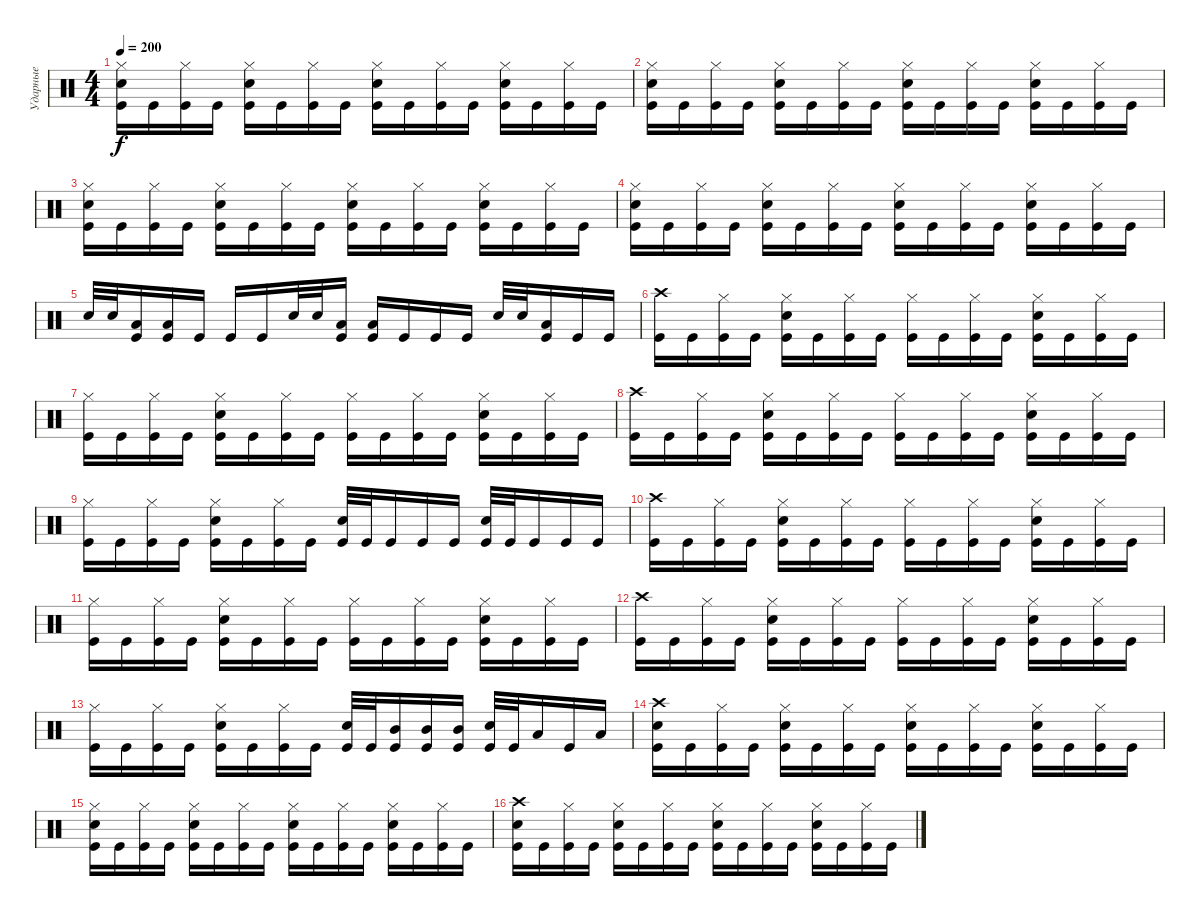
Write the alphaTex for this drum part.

\track ("Ударные" "Ударные") {instrument percussion}
\staff {score}
\articulation defaults
\ts (4 4)
\tempo 200
\clef neutral
\ks c
("Hi-Hat (closed)" "Electric Snare (hit)" "Kick (hit)").16{dy f} "Kick (hit)".16 ("Hi-Hat (closed)" "Kick (hit)").16 "Kick (hit)".16 ("Hi-Hat (closed)" "Electric Snare (hit)" "Kick (hit)").16 "Kick (hit)".16 ("Hi-Hat (closed)" "Kick (hit)").16 "Kick (hit)".16 ("Hi-Hat (closed)" "Electric Snare (hit)" "Kick (hit)").16 "Kick (hit)".16 ("Hi-Hat (closed)" "Kick (hit)").16 "Kick (hit)".16 ("Hi-Hat (closed)" "Electric Snare (hit)" "Kick (hit)").16 "Kick (hit)".16 ("Hi-Hat (closed)" "Kick (hit)").16 "Kick (hit)".16 |
("Hi-Hat (closed)" "Electric Snare (hit)" "Kick (hit)").16 "Kick (hit)".16 ("Hi-Hat (closed)" "Kick (hit)").16 "Kick (hit)".16 ("Hi-Hat (closed)" "Electric Snare (hit)" "Kick (hit)").16 "Kick (hit)".16 ("Hi-Hat (closed)" "Kick (hit)").16 "Kick (hit)".16 ("Hi-Hat (closed)" "Electric Snare (hit)" "Kick (hit)").16 "Kick (hit)".16 ("Hi-Hat (closed)" "Kick (hit)").16 "Kick (hit)".16 ("Hi-Hat (closed)" "Electric Snare (hit)" "Kick (hit)").16 "Kick (hit)".16 ("Hi-Hat (closed)" "Kick (hit)").16 "Kick (hit)".16 |
("Hi-Hat (closed)" "Electric Snare (hit)" "Kick (hit)").16 "Kick (hit)".16 ("Hi-Hat (closed)" "Kick (hit)").16 "Kick (hit)".16 ("Hi-Hat (closed)" "Electric Snare (hit)" "Kick (hit)").16 "Kick (hit)".16 ("Hi-Hat (closed)" "Kick (hit)").16 "Kick (hit)".16 ("Hi-Hat (closed)" "Electric Snare (hit)" "Kick (hit)").16 "Kick (hit)".16 ("Hi-Hat (closed)" "Kick (hit)").16 "Kick (hit)".16 ("Hi-Hat (closed)" "Electric Snare (hit)" "Kick (hit)").16 "Kick (hit)".16 ("Hi-Hat (closed)" "Kick (hit)").16 "Kick (hit)".16 |
("Hi-Hat (closed)" "Electric Snare (hit)" "Kick (hit)").16 "Kick (hit)".16 ("Hi-Hat (closed)" "Kick (hit)").16 "Kick (hit)".16 ("Hi-Hat (closed)" "Electric Snare (hit)" "Kick (hit)").16 "Kick (hit)".16 ("Hi-Hat (closed)" "Kick (hit)").16 "Kick (hit)".16 ("Hi-Hat (closed)" "Electric Snare (hit)" "Kick (hit)").16 "Kick (hit)".16 ("Hi-Hat (closed)" "Kick (hit)").16 "Kick (hit)".16 ("Hi-Hat (closed)" "Electric Snare (hit)" "Kick (hit)").16 "Kick (hit)".16 ("Hi-Hat (closed)" "Kick (hit)").16 "Kick (hit)".16 |
"Electric Snare (hit)".32 "Electric Snare (hit)".32 ("Low Tom (hit)" "Kick (hit)").16 ("Low Tom (hit)" "Kick (hit)").16 "Kick (hit)".16 "Kick (hit)".16 "Kick (hit)".16 "Electric Snare (hit)".32 "Electric Snare (hit)".32 ("Low Tom (hit)" "Kick (hit)").16 ("Low Tom (hit)" "Kick (hit)").16 "Kick (hit)".16 "Kick (hit)".16 "Kick (hit)".16 "Electric Snare (hit)".32 "Electric Snare (hit)".32 ("Low Tom (hit)" "Kick (hit)").16 "Kick (hit)".16 "Kick (hit)".16 |
("Crash high (hit)" "Kick (hit)").16 "Kick (hit)".16 ("Hi-Hat (closed)" "Kick (hit)").16 "Kick (hit)".16 ("Hi-Hat (closed)" "Electric Snare (hit)" "Kick (hit)").16 "Kick (hit)".16 ("Hi-Hat (closed)" "Kick (hit)").16 "Kick (hit)".16 ("Hi-Hat (closed)" "Kick (hit)").16 "Kick (hit)".16 ("Hi-Hat (closed)" "Kick (hit)").16 "Kick (hit)".16 ("Hi-Hat (closed)" "Electric Snare (hit)" "Kick (hit)").16 "Kick (hit)".16 ("Hi-Hat (closed)" "Kick (hit)").16 "Kick (hit)".16 |
("Hi-Hat (closed)" "Kick (hit)").16 "Kick (hit)".16 ("Hi-Hat (closed)" "Kick (hit)").16 "Kick (hit)".16 ("Hi-Hat (closed)" "Electric Snare (hit)" "Kick (hit)").16 "Kick (hit)".16 ("Hi-Hat (closed)" "Kick (hit)").16 "Kick (hit)".16 ("Hi-Hat (closed)" "Kick (hit)").16 "Kick (hit)".16 ("Hi-Hat (closed)" "Kick (hit)").16 "Kick (hit)".16 ("Hi-Hat (closed)" "Electric Snare (hit)" "Kick (hit)").16 "Kick (hit)".16 ("Hi-Hat (closed)" "Kick (hit)").16 "Kick (hit)".16 |
("Crash high (hit)" "Kick (hit)").16 "Kick (hit)".16 ("Hi-Hat (closed)" "Kick (hit)").16 "Kick (hit)".16 ("Hi-Hat (closed)" "Electric Snare (hit)" "Kick (hit)").16 "Kick (hit)".16 ("Hi-Hat (closed)" "Kick (hit)").16 "Kick (hit)".16 ("Hi-Hat (closed)" "Kick (hit)").16 "Kick (hit)".16 ("Hi-Hat (closed)" "Kick (hit)").16 "Kick (hit)".16 ("Hi-Hat (closed)" "Electric Snare (hit)" "Kick (hit)").16 "Kick (hit)".16 ("Hi-Hat (closed)" "Kick (hit)").16 "Kick (hit)".16 |
("Hi-Hat (closed)" "Kick (hit)").16 "Kick (hit)".16 ("Hi-Hat (closed)" "Kick (hit)").16 "Kick (hit)".16 ("Hi-Hat (closed)" "Electric Snare (hit)" "Kick (hit)").16 "Kick (hit)".16 ("Hi-Hat (closed)" "Kick (hit)").16 "Kick (hit)".16 ("Electric Snare (hit)" "Kick (hit)").32 "Kick (hit)".32 "Kick (hit)".16 "Kick (hit)".16 "Kick (hit)".16 ("Electric Snare (hit)" "Kick (hit)").32 "Kick (hit)".32 "Kick (hit)".16 "Kick (hit)".16 "Kick (hit)".16 |
("Crash high (hit)" "Kick (hit)").16 "Kick (hit)".16 ("Hi-Hat (closed)" "Kick (hit)").16 "Kick (hit)".16 ("Hi-Hat (closed)" "Electric Snare (hit)" "Kick (hit)").16 "Kick (hit)".16 ("Hi-Hat (closed)" "Kick (hit)").16 "Kick (hit)".16 ("Hi-Hat (closed)" "Kick (hit)").16 "Kick (hit)".16 ("Hi-Hat (closed)" "Kick (hit)").16 "Kick (hit)".16 ("Hi-Hat (closed)" "Electric Snare (hit)" "Kick (hit)").16 "Kick (hit)".16 ("Hi-Hat (closed)" "Kick (hit)").16 "Kick (hit)".16 |
("Hi-Hat (closed)" "Kick (hit)").16 "Kick (hit)".16 ("Hi-Hat (closed)" "Kick (hit)").16 "Kick (hit)".16 ("Hi-Hat (closed)" "Electric Snare (hit)" "Kick (hit)").16 "Kick (hit)".16 ("Hi-Hat (closed)" "Kick (hit)").16 "Kick (hit)".16 ("Hi-Hat (closed)" "Kick (hit)").16 "Kick (hit)".16 ("Hi-Hat (closed)" "Kick (hit)").16 "Kick (hit)".16 ("Hi-Hat (closed)" "Electric Snare (hit)" "Kick (hit)").16 "Kick (hit)".16 ("Hi-Hat (closed)" "Kick (hit)").16 "Kick (hit)".16 |
("Crash high (hit)" "Kick (hit)").16 "Kick (hit)".16 ("Hi-Hat (closed)" "Kick (hit)").16 "Kick (hit)".16 ("Hi-Hat (closed)" "Electric Snare (hit)" "Kick (hit)").16 "Kick (hit)".16 ("Hi-Hat (closed)" "Kick (hit)").16 "Kick (hit)".16 ("Hi-Hat (closed)" "Kick (hit)").16 "Kick (hit)".16 ("Hi-Hat (closed)" "Kick (hit)").16 "Kick (hit)".16 ("Hi-Hat (closed)" "Electric Snare (hit)" "Kick (hit)").16 "Kick (hit)".16 ("Hi-Hat (closed)" "Kick (hit)").16 "Kick (hit)".16 |
("Hi-Hat (closed)" "Kick (hit)").16 "Kick (hit)".16 ("Hi-Hat (closed)" "Kick (hit)").16 "Kick (hit)".16 ("Hi-Hat (closed)" "Electric Snare (hit)" "Kick (hit)").16 "Kick (hit)".16 ("Hi-Hat (closed)" "Kick (hit)").16 "Kick (hit)".16 ("Electric Snare (hit)" "Kick (hit)").32 "Kick (hit)".32 ("Mid Tom (hit)" "Kick (hit)").16 ("Mid Tom (hit)" "Kick (hit)").16 ("Mid Tom (hit)" "Kick (hit)").16 ("Electric Snare (hit)" "Kick (hit)").32 "Kick (hit)".32 "Low Tom (hit)".16 "Kick (hit)".16 "Low Tom (hit)".16 |
("Crash high (hit)" "Electric Snare (hit)" "Kick (hit)").16 "Kick (hit)".16 ("Hi-Hat (closed)" "Kick (hit)").16 "Kick (hit)".16 ("Hi-Hat (closed)" "Electric Snare (hit)" "Kick (hit)").16 "Kick (hit)".16 ("Hi-Hat (closed)" "Kick (hit)").16 "Kick (hit)".16 ("Hi-Hat (closed)" "Electric Snare (hit)" "Kick (hit)").16 "Kick (hit)".16 ("Hi-Hat (closed)" "Kick (hit)").16 "Kick (hit)".16 ("Hi-Hat (closed)" "Electric Snare (hit)" "Kick (hit)").16 "Kick (hit)".16 ("Hi-Hat (closed)" "Kick (hit)").16 "Kick (hit)".16 |
("Hi-Hat (closed)" "Electric Snare (hit)" "Kick (hit)").16 "Kick (hit)".16 ("Hi-Hat (closed)" "Kick (hit)").16 "Kick (hit)".16 ("Hi-Hat (closed)" "Electric Snare (hit)" "Kick (hit)").16 "Kick (hit)".16 ("Hi-Hat (closed)" "Kick (hit)").16 "Kick (hit)".16 ("Hi-Hat (closed)" "Electric Snare (hit)" "Kick (hit)").16 "Kick (hit)".16 ("Hi-Hat (closed)" "Kick (hit)").16 "Kick (hit)".16 ("Hi-Hat (closed)" "Electric Snare (hit)" "Kick (hit)").16 "Kick (hit)".16 ("Hi-Hat (closed)" "Kick (hit)").16 "Kick (hit)".16 |
("Crash high (hit)" "Electric Snare (hit)" "Kick (hit)").16 "Kick (hit)".16 ("Hi-Hat (closed)" "Kick (hit)").16 "Kick (hit)".16 ("Hi-Hat (closed)" "Electric Snare (hit)" "Kick (hit)").16 "Kick (hit)".16 ("Hi-Hat (closed)" "Kick (hit)").16 "Kick (hit)".16 ("Hi-Hat (closed)" "Electric Snare (hit)" "Kick (hit)").16 "Kick (hit)".16 ("Hi-Hat (closed)" "Kick (hit)").16 "Kick (hit)".16 ("Hi-Hat (closed)" "Electric Snare (hit)" "Kick (hit)").16 "Kick (hit)".16 ("Hi-Hat (closed)" "Kick (hit)").16 "Kick (hit)".16
